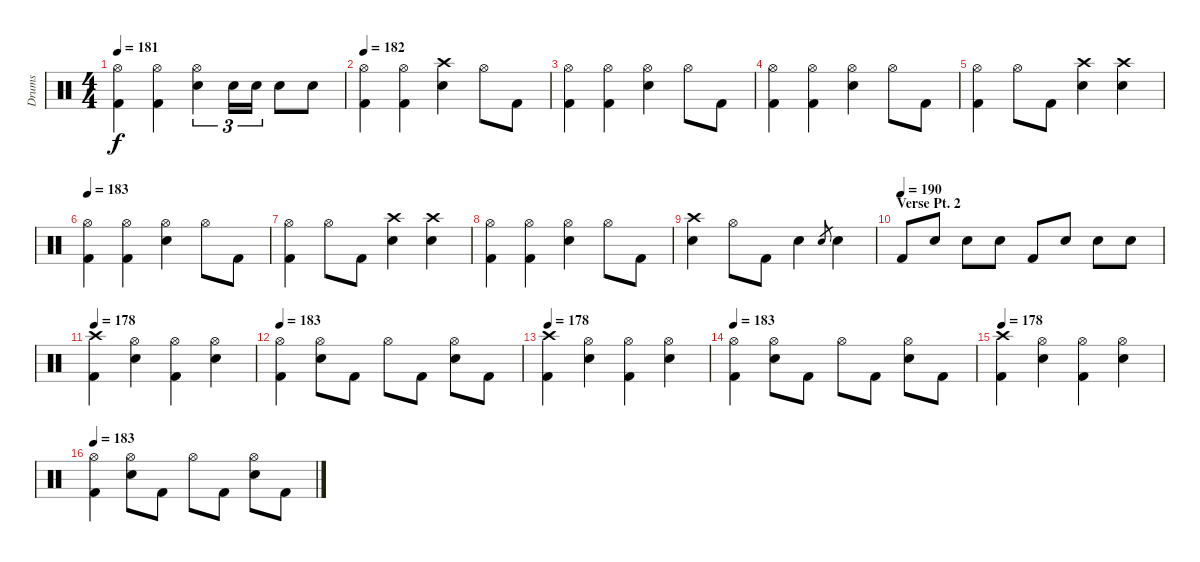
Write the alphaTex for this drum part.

\track ("Drums" "Drums") {instrument percussion}
\staff {score}
\articulation defaults
\ts (4 4)
\tempo 181
\clef neutral
\ks c
("Kick (hit) 2" "Hi-Hat (open)").4{dy f} ("Kick (hit) 2" "Hi-Hat (open)").4 ("Snare (hit) 2" "Hi-Hat (open)").4{tu (3 2)} "Snare (hit) 2".16{tu (3 2)} "Snare (hit) 2".16{tu (3 2)} "Snare (hit) 2".8 "Snare (hit) 2".8 |
\tempo 182
("Kick (hit) 2" "Hi-Hat (open)").4 ("Kick (hit) 2" "Hi-Hat (open)").4 ("Snare (hit) 2" "Crash high (hit)").4 "Hi-Hat (open)".8 "Kick (hit) 2".8 |
("Kick (hit) 2" "Hi-Hat (open)").4 ("Kick (hit) 2" "Hi-Hat (open)").4 ("Snare (hit) 2" "Hi-Hat (open)").4 "Hi-Hat (open)".8 "Kick (hit) 2".8 |
("Kick (hit) 2" "Hi-Hat (open)").4 ("Kick (hit) 2" "Hi-Hat (open)").4 ("Snare (hit) 2" "Hi-Hat (open)").4 "Hi-Hat (open)".8 "Kick (hit) 2".8 |
("Kick (hit) 2" "Hi-Hat (open)").4 "Hi-Hat (open)".8 "Kick (hit) 2".8 ("Snare (hit) 2" "Crash high (hit)").4 ("Snare (hit) 2" "Crash high (hit)").4 |
\tempo 183
("Kick (hit) 2" "Hi-Hat (open)").4 ("Kick (hit) 2" "Hi-Hat (open)").4 ("Snare (hit) 2" "Hi-Hat (open)").4 "Hi-Hat (open)".8 "Kick (hit) 2".8 |
("Kick (hit) 2" "Hi-Hat (open)").4 "Hi-Hat (open)".8 "Kick (hit) 2".8 ("Snare (hit) 2" "Crash high (hit)").4 ("Snare (hit) 2" "Crash high (hit)").4 |
("Kick (hit) 2" "Hi-Hat (open)").4 ("Kick (hit) 2" "Hi-Hat (open)").4 ("Snare (hit) 2" "Hi-Hat (open)").4 "Hi-Hat (open)".8 "Kick (hit) 2".8 |
("Snare (hit) 2" "Crash high (hit)").4 "Hi-Hat (open)".8 "Kick (hit) 2".8 "Snare (hit) 2".4 "Snare (hit)".8{gr} "Snare (hit) 2".4 |
\section ("" "Verse Pt. 2")
\tempo (190)
"Kick (hit) 2".8 "Snare (hit) 2".8 "Snare (hit) 2".8 "Snare (hit) 2".8 "Kick (hit) 2".8 "Snare (hit) 2".8 "Snare (hit) 2".8 "Snare (hit) 2".8 |
\tempo 178
("Crash high (hit)" "Kick (hit) 2").4 ("Snare (hit) 2" "Hi-Hat (open)").4 ("Hi-Hat (open)" "Kick (hit) 2").4 ("Hi-Hat (open)" "Snare (hit) 2").4 |
\tempo 183
("Hi-Hat (open)" "Kick (hit) 2").4 ("Hi-Hat (open)" "Snare (hit) 2").8 "Kick (hit) 2".8 "Hi-Hat (open)".8 "Kick (hit) 2".8 ("Snare (hit) 2" "Hi-Hat (open)").8 "Kick (hit) 2".8 |
\tempo 178
("Crash high (hit)" "Kick (hit) 2").4 ("Snare (hit) 2" "Hi-Hat (open)").4 ("Hi-Hat (open)" "Kick (hit) 2").4 ("Hi-Hat (open)" "Snare (hit) 2").4 |
\tempo 183
("Hi-Hat (open)" "Kick (hit) 2").4 ("Hi-Hat (open)" "Snare (hit) 2").8 "Kick (hit) 2".8 "Hi-Hat (open)".8 "Kick (hit) 2".8 ("Snare (hit) 2" "Hi-Hat (open)").8 "Kick (hit) 2".8 |
\tempo 178
("Crash high (hit)" "Kick (hit) 2").4 ("Snare (hit) 2" "Hi-Hat (open)").4 ("Hi-Hat (open)" "Kick (hit) 2").4 ("Hi-Hat (open)" "Snare (hit) 2").4 |
\tempo 183
("Hi-Hat (open)" "Kick (hit) 2").4 ("Hi-Hat (open)" "Snare (hit) 2").8 "Kick (hit) 2".8 "Hi-Hat (open)".8 "Kick (hit) 2".8 ("Snare (hit) 2" "Hi-Hat (open)").8 "Kick (hit) 2".8
